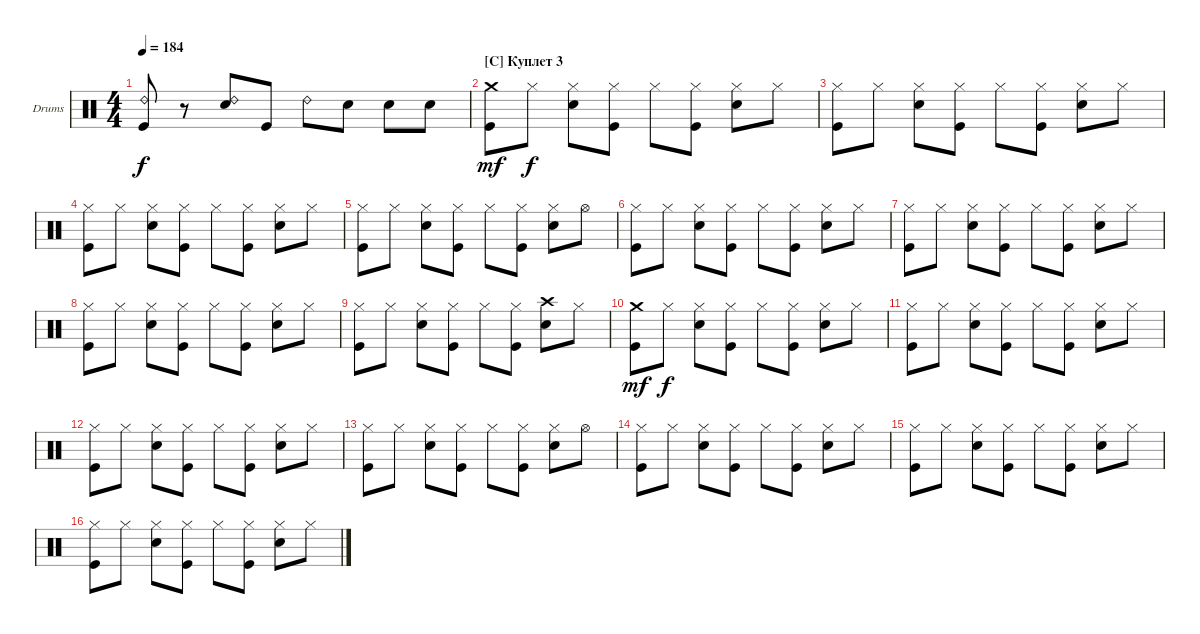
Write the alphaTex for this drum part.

\bracketExtendMode groupsimilarinstruments
\firstSystemTrackNameOrientation horizontal
\otherSystemsTrackNameOrientation horizontal
\track ("Drumkit" "Drums") {instrument percussion}
\staff {score}
\articulation defaults
\ts (4 4)
\tempo 184
\clef neutral
\ks c
("Ride (bell) 2" "Kick (hit)").8{dy f} r.8 ("Ride (bell) 2" "Snare (hit) 2").8 "Kick (hit)".8 "Ride (bell) 2".8 "Snare (hit) 2".8 "Snare (hit) 2".8 "Snare (hit) 2".8 |
\section ("C" "Куплет 3")
("Crash medium (hit)" "Kick (hit)").8{dy mf} "Hi-Hat (closed)".8{dy f} ("Hi-Hat (closed)" "Snare (hit) 2").8 ("Hi-Hat (closed)" "Kick (hit)").8 "Hi-Hat (closed)".8 ("Hi-Hat (closed)" "Kick (hit)").8 ("Hi-Hat (closed)" "Snare (hit) 2").8 "Hi-Hat (closed)".8 |
("Hi-Hat (closed)" "Kick (hit)").8 "Hi-Hat (closed)".8 ("Hi-Hat (closed)" "Snare (hit) 2").8 ("Hi-Hat (closed)" "Kick (hit)").8 "Hi-Hat (closed)".8 ("Hi-Hat (closed)" "Kick (hit)").8 ("Hi-Hat (closed)" "Snare (hit) 2").8 "Hi-Hat (closed)".8 |
("Hi-Hat (closed)" "Kick (hit)").8 "Hi-Hat (closed)".8 ("Hi-Hat (closed)" "Snare (hit) 2").8 ("Hi-Hat (closed)" "Kick (hit)").8 "Hi-Hat (closed)".8 ("Hi-Hat (closed)" "Kick (hit)").8 ("Hi-Hat (closed)" "Snare (hit) 2").8 "Hi-Hat (closed)".8 |
("Hi-Hat (closed)" "Kick (hit)").8 "Hi-Hat (closed)".8 ("Hi-Hat (closed)" "Snare (hit) 2").8 ("Hi-Hat (closed)" "Kick (hit)").8 "Hi-Hat (closed)".8 ("Hi-Hat (closed)" "Kick (hit)").8 ("Hi-Hat (closed)" "Snare (hit) 2").8 "Hi-Hat (open)".8 |
("Hi-Hat (closed)" "Kick (hit)").8 "Hi-Hat (closed)".8 ("Hi-Hat (closed)" "Snare (hit) 2").8 ("Hi-Hat (closed)" "Kick (hit)").8 "Hi-Hat (closed)".8 ("Hi-Hat (closed)" "Kick (hit)").8 ("Hi-Hat (closed)" "Snare (hit) 2").8 "Hi-Hat (closed)".8 |
("Hi-Hat (closed)" "Kick (hit)").8 "Hi-Hat (closed)".8 ("Hi-Hat (closed)" "Snare (hit) 2").8 ("Hi-Hat (closed)" "Kick (hit)").8 "Hi-Hat (closed)".8 ("Hi-Hat (closed)" "Kick (hit)").8 ("Hi-Hat (closed)" "Snare (hit) 2").8 "Hi-Hat (closed)".8 |
("Hi-Hat (closed)" "Kick (hit)").8 "Hi-Hat (closed)".8 ("Hi-Hat (closed)" "Snare (hit) 2").8 ("Hi-Hat (closed)" "Kick (hit)").8 "Hi-Hat (closed)".8 ("Hi-Hat (closed)" "Kick (hit)").8 ("Hi-Hat (closed)" "Snare (hit) 2").8 "Hi-Hat (closed)".8 |
("Hi-Hat (closed)" "Kick (hit)").8 "Hi-Hat (closed)".8 ("Hi-Hat (closed)" "Snare (hit) 2").8 ("Hi-Hat (closed)" "Kick (hit)").8 "Hi-Hat (closed)".8 ("Hi-Hat (closed)" "Kick (hit)").8 ("Crash high (hit)" "Snare (hit) 2").8 "Hi-Hat (closed)".8 |
("Crash medium (hit)" "Kick (hit)").8{dy mf} "Hi-Hat (closed)".8{dy f} ("Hi-Hat (closed)" "Snare (hit) 2").8 ("Hi-Hat (closed)" "Kick (hit)").8 "Hi-Hat (closed)".8 ("Hi-Hat (closed)" "Kick (hit)").8 ("Hi-Hat (closed)" "Snare (hit) 2").8 "Hi-Hat (closed)".8 |
("Hi-Hat (closed)" "Kick (hit)").8 "Hi-Hat (closed)".8 ("Hi-Hat (closed)" "Snare (hit) 2").8 ("Hi-Hat (closed)" "Kick (hit)").8 "Hi-Hat (closed)".8 ("Hi-Hat (closed)" "Kick (hit)").8 ("Hi-Hat (closed)" "Snare (hit) 2").8 "Hi-Hat (closed)".8 |
("Hi-Hat (closed)" "Kick (hit)").8 "Hi-Hat (closed)".8 ("Hi-Hat (closed)" "Snare (hit) 2").8 ("Hi-Hat (closed)" "Kick (hit)").8 "Hi-Hat (closed)".8 ("Hi-Hat (closed)" "Kick (hit)").8 ("Hi-Hat (closed)" "Snare (hit) 2").8 "Hi-Hat (closed)".8 |
("Hi-Hat (closed)" "Kick (hit)").8 "Hi-Hat (closed)".8 ("Hi-Hat (closed)" "Snare (hit) 2").8 ("Hi-Hat (closed)" "Kick (hit)").8 "Hi-Hat (closed)".8 ("Hi-Hat (closed)" "Kick (hit)").8 ("Hi-Hat (closed)" "Snare (hit) 2").8 "Hi-Hat (open)".8 |
("Hi-Hat (closed)" "Kick (hit)").8 "Hi-Hat (closed)".8 ("Hi-Hat (closed)" "Snare (hit) 2").8 ("Hi-Hat (closed)" "Kick (hit)").8 "Hi-Hat (closed)".8 ("Hi-Hat (closed)" "Kick (hit)").8 ("Hi-Hat (closed)" "Snare (hit) 2").8 "Hi-Hat (closed)".8 |
("Hi-Hat (closed)" "Kick (hit)").8 "Hi-Hat (closed)".8 ("Hi-Hat (closed)" "Snare (hit) 2").8 ("Hi-Hat (closed)" "Kick (hit)").8 "Hi-Hat (closed)".8 ("Hi-Hat (closed)" "Kick (hit)").8 ("Hi-Hat (closed)" "Snare (hit) 2").8 "Hi-Hat (closed)".8 |
("Hi-Hat (closed)" "Kick (hit)").8 "Hi-Hat (closed)".8 ("Hi-Hat (closed)" "Snare (hit) 2").8 ("Hi-Hat (closed)" "Kick (hit)").8 "Hi-Hat (closed)".8 ("Hi-Hat (closed)" "Kick (hit)").8 ("Hi-Hat (closed)" "Snare (hit) 2").8 "Hi-Hat (closed)".8
